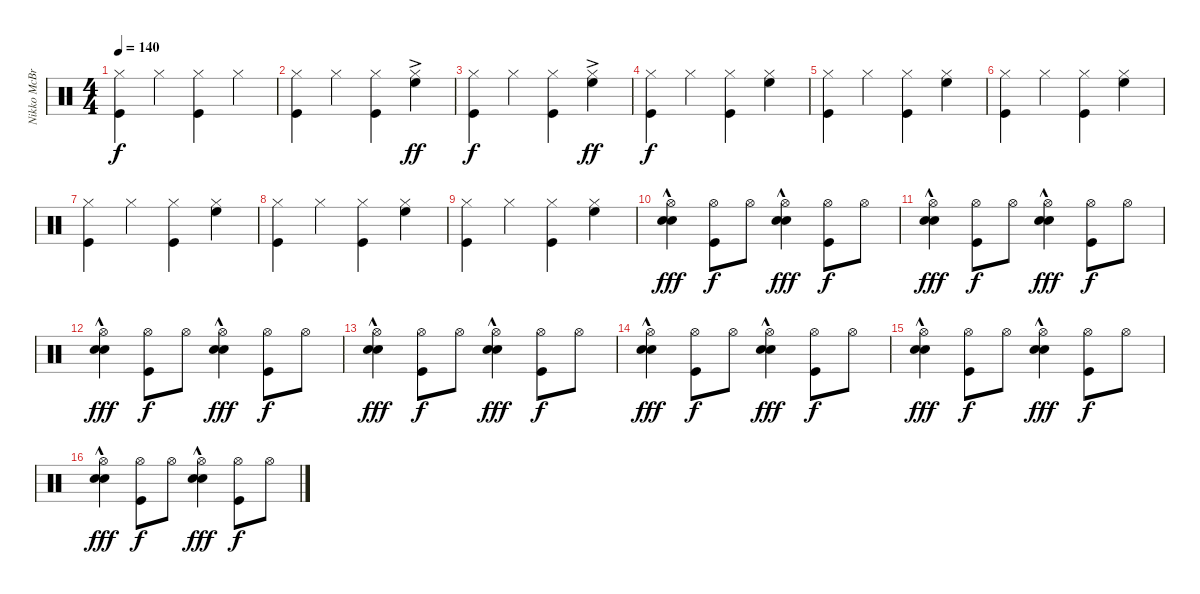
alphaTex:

\track ("Nikko McBrain" "Nikko McBr") {instrument percussion}
\staff {score}
\articulation defaults
\ts (4 4)
\tempo 140
\clef neutral
\ks c
("Hi-Hat (closed)" "Kick (hit)").4{dy f} "Hi-Hat (closed)".4 ("Hi-Hat (closed)" "Kick (hit)").4 "Hi-Hat (closed)".4 |
("Hi-Hat (closed)" "Kick (hit)").4 "Hi-Hat (closed)".4 ("Hi-Hat (closed)" "Kick (hit)").4 ("High Floor Tom (hit)"{ac} "Hi-Hat (closed)").4{dy ff} |
("Hi-Hat (closed)" "Kick (hit)").4{dy f} "Hi-Hat (closed)".4 ("Hi-Hat (closed)" "Kick (hit)").4 ("High Floor Tom (hit)"{ac} "Hi-Hat (closed)").4{dy ff} |
("Hi-Hat (closed)" "Kick (hit)").4{dy f} "Hi-Hat (closed)".4 ("Hi-Hat (closed)" "Kick (hit)").4 ("High Floor Tom (hit)" "Hi-Hat (closed)").4 |
("Hi-Hat (closed)" "Kick (hit)").4 "Hi-Hat (closed)".4 ("Hi-Hat (closed)" "Kick (hit)").4 ("High Floor Tom (hit)" "Hi-Hat (closed)").4 |
("Hi-Hat (closed)" "Kick (hit)").4 "Hi-Hat (closed)".4 ("Hi-Hat (closed)" "Kick (hit)").4 ("High Floor Tom (hit)" "Hi-Hat (closed)").4 |
("Hi-Hat (closed)" "Kick (hit)").4 "Hi-Hat (closed)".4 ("Hi-Hat (closed)" "Kick (hit)").4 ("High Floor Tom (hit)" "Hi-Hat (closed)").4 |
("Hi-Hat (closed)" "Kick (hit)").4 "Hi-Hat (closed)".4 ("Hi-Hat (closed)" "Kick (hit)").4 ("High Floor Tom (hit)" "Hi-Hat (closed)").4 |
("Hi-Hat (closed)" "Kick (hit)").4 "Hi-Hat (closed)".4 ("Hi-Hat (closed)" "Kick (hit)").4 ("High Floor Tom (hit)" "Hi-Hat (closed)").4 |
("Hi-Hat (open)" "Snare (hit) 2"{hac} "Snare (hit) 2"{hac}).4{dy fff} ("Hi-Hat (open)" "Kick (hit)").8{dy f} "Hi-Hat (open)".8 ("Hi-Hat (open)" "Snare (hit) 2"{hac} "Snare (hit) 2"{hac}).4{dy fff} ("Hi-Hat (open)" "Kick (hit)").8{dy f} "Hi-Hat (open)".8 |
("Hi-Hat (open)" "Snare (hit) 2"{hac} "Snare (hit) 2"{hac}).4{dy fff} ("Hi-Hat (open)" "Kick (hit)").8{dy f} "Hi-Hat (open)".8 ("Hi-Hat (open)" "Snare (hit) 2"{hac} "Snare (hit) 2"{hac}).4{dy fff} ("Hi-Hat (open)" "Kick (hit)").8{dy f} "Hi-Hat (open)".8 |
("Hi-Hat (open)" "Snare (hit) 2"{hac} "Snare (hit) 2"{hac}).4{dy fff} ("Hi-Hat (open)" "Kick (hit)").8{dy f} "Hi-Hat (open)".8 ("Hi-Hat (open)" "Snare (hit) 2"{hac} "Snare (hit) 2"{hac}).4{dy fff} ("Hi-Hat (open)" "Kick (hit)").8{dy f} "Hi-Hat (open)".8 |
("Hi-Hat (open)" "Snare (hit) 2"{hac} "Snare (hit) 2"{hac}).4{dy fff} ("Hi-Hat (open)" "Kick (hit)").8{dy f} "Hi-Hat (open)".8 ("Hi-Hat (open)" "Snare (hit) 2"{hac} "Snare (hit) 2"{hac}).4{dy fff} ("Hi-Hat (open)" "Kick (hit)").8{dy f} "Hi-Hat (open)".8 |
("Hi-Hat (open)" "Snare (hit) 2"{hac} "Snare (hit) 2"{hac}).4{dy fff} ("Hi-Hat (open)" "Kick (hit)").8{dy f} "Hi-Hat (open)".8 ("Hi-Hat (open)" "Snare (hit) 2"{hac} "Snare (hit) 2"{hac}).4{dy fff} ("Hi-Hat (open)" "Kick (hit)").8{dy f} "Hi-Hat (open)".8 |
("Hi-Hat (open)" "Snare (hit) 2"{hac} "Snare (hit) 2"{hac}).4{dy fff} ("Hi-Hat (open)" "Kick (hit)").8{dy f} "Hi-Hat (open)".8 ("Hi-Hat (open)" "Snare (hit) 2"{hac} "Snare (hit) 2"{hac}).4{dy fff} ("Hi-Hat (open)" "Kick (hit)").8{dy f} "Hi-Hat (open)".8 |
("Hi-Hat (open)" "Snare (hit) 2"{hac} "Snare (hit) 2"{hac}).4{dy fff} ("Hi-Hat (open)" "Kick (hit)").8{dy f} "Hi-Hat (open)".8 ("Hi-Hat (open)" "Snare (hit) 2"{hac} "Snare (hit) 2"{hac}).4{dy fff} ("Hi-Hat (open)" "Kick (hit)").8{dy f} "Hi-Hat (open)".8
